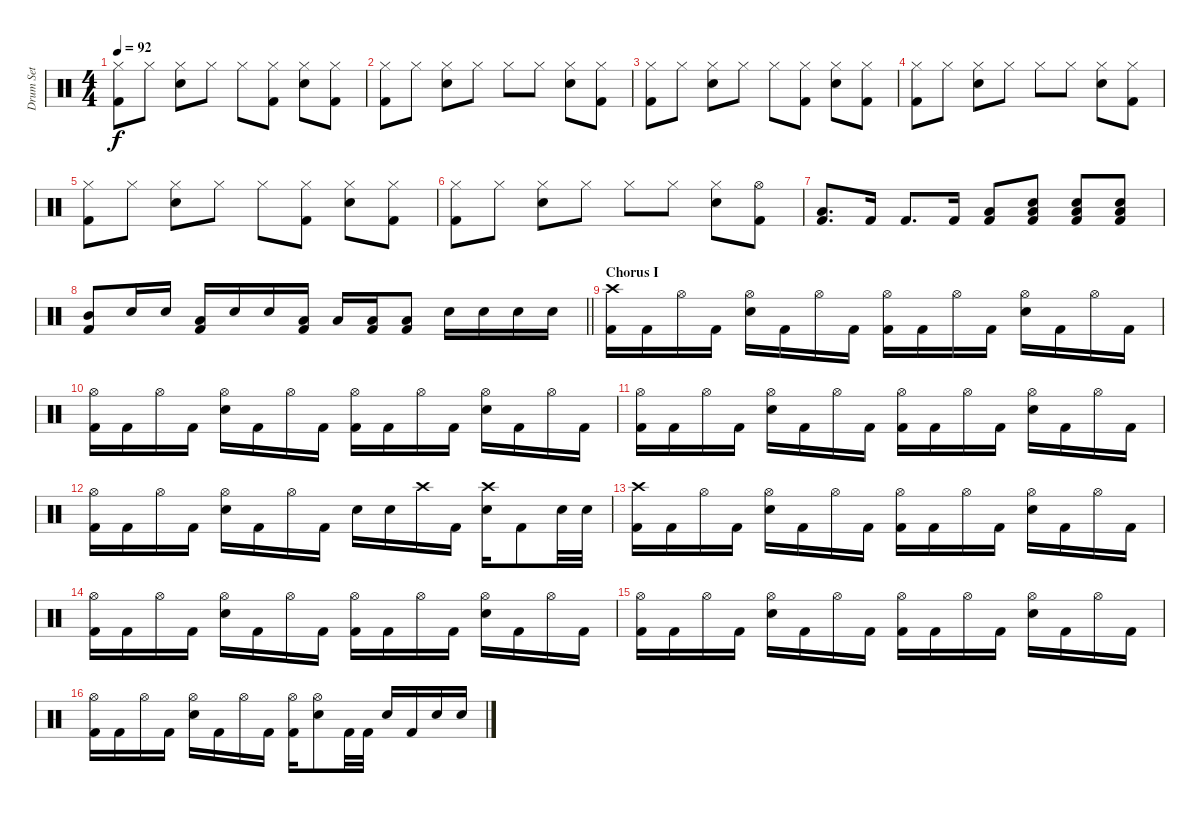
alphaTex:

\track ("Drum Set" "Drum Set") {instrument percussion}
\staff {score}
\articulation defaults
\ts (4 4)
\tempo 92
\clef neutral
\ks c
("Hi-Hat (closed)" "Kick (hit) 2").8{dy f} "Hi-Hat (closed)".8 ("Hi-Hat (closed)" "Electric Snare (hit)").8 "Hi-Hat (closed)".8 "Hi-Hat (closed)".8 ("Hi-Hat (closed)" "Kick (hit) 2").8 ("Hi-Hat (closed)" "Electric Snare (hit)").8 ("Hi-Hat (closed)" "Kick (hit) 2").8 |
("Hi-Hat (closed)" "Kick (hit) 2").8 "Hi-Hat (closed)".8 ("Hi-Hat (closed)" "Electric Snare (hit)").8 "Hi-Hat (closed)".8 "Hi-Hat (closed)".8 "Hi-Hat (closed)".8 ("Hi-Hat (closed)" "Electric Snare (hit)").8 ("Hi-Hat (closed)" "Kick (hit) 2").8 |
("Hi-Hat (closed)" "Kick (hit) 2").8 "Hi-Hat (closed)".8 ("Hi-Hat (closed)" "Electric Snare (hit)").8 "Hi-Hat (closed)".8 "Hi-Hat (closed)".8 ("Hi-Hat (closed)" "Kick (hit) 2").8 ("Hi-Hat (closed)" "Electric Snare (hit)").8 ("Hi-Hat (closed)" "Kick (hit) 2").8 |
("Hi-Hat (closed)" "Kick (hit) 2").8 "Hi-Hat (closed)".8 ("Hi-Hat (closed)" "Electric Snare (hit)").8 "Hi-Hat (closed)".8 "Hi-Hat (closed)".8 "Hi-Hat (closed)".8 ("Hi-Hat (closed)" "Electric Snare (hit)").8 ("Hi-Hat (closed)" "Kick (hit) 2").8 |
("Hi-Hat (closed)" "Kick (hit) 2").8 "Hi-Hat (closed)".8 ("Hi-Hat (closed)" "Electric Snare (hit)").8 "Hi-Hat (closed)".8 "Hi-Hat (closed)".8 ("Hi-Hat (closed)" "Kick (hit) 2").8 ("Hi-Hat (closed)" "Electric Snare (hit)").8 ("Hi-Hat (closed)" "Kick (hit) 2").8 |
("Hi-Hat (closed)" "Kick (hit) 2").8 "Hi-Hat (closed)".8 ("Hi-Hat (closed)" "Electric Snare (hit)").8 "Hi-Hat (closed)".8 "Hi-Hat (closed)".8 "Hi-Hat (closed)".8 ("Hi-Hat (closed)" "Electric Snare (hit)").8 ("Hi-Hat (open)" "Kick (hit) 2").8 |
("Low Floor Tom (hit)" "Kick (hit) 2").8{d} "Kick (hit) 2".16 "Kick (hit) 2".8{d} "Kick (hit) 2".16 ("Low Floor Tom (hit)" "Kick (hit) 2").8 ("Electric Snare (hit)" "Kick (hit) 2" "Low Floor Tom (hit)").8 ("Electric Snare (hit)" "Kick (hit) 2" "Low Floor Tom (hit)").8 ("Electric Snare (hit)" "Kick (hit) 2" "Low Floor Tom (hit)").8 |
\barLineRight lightlight
("Mid Tom (hit)" "Kick (hit) 2").8 "Electric Snare (hit)".16 "Electric Snare (hit)".16 ("Low Tom (hit)" "Kick (hit) 2").16 "Electric Snare (hit)".16 "Electric Snare (hit)".16 ("Low Tom (hit)" "Kick (hit) 2").16 "Low Floor Tom (hit)".16 ("Low Floor Tom (hit)" "Kick (hit) 2").16 ("Low Floor Tom (hit)" "Kick (hit) 2").8 "Electric Snare (hit)".16 "Electric Snare (hit)".16 "Electric Snare (hit)".16 "Electric Snare (hit)".16 |
\section ("" "Chorus I")
("Crash high (hit)" "Kick (hit) 2").16 "Kick (hit) 2".16 "Hi-Hat (open)".16 "Kick (hit) 2".16 ("Hi-Hat (open)" "Electric Snare (hit)").16 "Kick (hit) 2".16 "Hi-Hat (open)".16 "Kick (hit) 2".16 ("Hi-Hat (open)" "Kick (hit) 2").16 "Kick (hit) 2".16 "Hi-Hat (open)".16 "Kick (hit) 2".16 ("Hi-Hat (open)" "Electric Snare (hit)").16 "Kick (hit) 2".16 "Hi-Hat (open)".16 "Kick (hit) 2".16 |
("Hi-Hat (open)" "Kick (hit) 2").16 "Kick (hit) 2".16 "Hi-Hat (open)".16 "Kick (hit) 2".16 ("Hi-Hat (open)" "Electric Snare (hit)").16 "Kick (hit) 2".16 "Hi-Hat (open)".16 "Kick (hit) 2".16 ("Hi-Hat (open)" "Kick (hit) 2").16 "Kick (hit) 2".16 "Hi-Hat (open)".16 "Kick (hit) 2".16 ("Hi-Hat (open)" "Electric Snare (hit)").16 "Kick (hit) 2".16 "Hi-Hat (open)".16 "Kick (hit) 2".16 |
("Hi-Hat (open)" "Kick (hit) 2").16 "Kick (hit) 2".16 "Hi-Hat (open)".16 "Kick (hit) 2".16 ("Hi-Hat (open)" "Electric Snare (hit)").16 "Kick (hit) 2".16 "Hi-Hat (open)".16 "Kick (hit) 2".16 ("Hi-Hat (open)" "Kick (hit) 2").16 "Kick (hit) 2".16 "Hi-Hat (open)".16 "Kick (hit) 2".16 ("Hi-Hat (open)" "Electric Snare (hit)").16 "Kick (hit) 2".16 "Hi-Hat (open)".16 "Kick (hit) 2".16 |
("Hi-Hat (open)" "Kick (hit) 2").16 "Kick (hit) 2".16 "Hi-Hat (open)".16 "Kick (hit) 2".16 ("Hi-Hat (open)" "Electric Snare (hit)").16 "Kick (hit) 2".16 "Hi-Hat (open)".16 "Kick (hit) 2".16 "Electric Snare (hit)".16 "Electric Snare (hit)".16 "Crash high (hit)".16 "Kick (hit) 2".16 ("Electric Snare (hit)" "Crash high (hit)").16 "Kick (hit) 2".8 "Electric Snare (hit)".32 "Electric Snare (hit)".32 |
("Crash high (hit)" "Kick (hit) 2").16 "Kick (hit) 2".16 "Hi-Hat (open)".16 "Kick (hit) 2".16 ("Hi-Hat (open)" "Electric Snare (hit)").16 "Kick (hit) 2".16 "Hi-Hat (open)".16 "Kick (hit) 2".16 ("Hi-Hat (open)" "Kick (hit) 2").16 "Kick (hit) 2".16 "Hi-Hat (open)".16 "Kick (hit) 2".16 ("Hi-Hat (open)" "Electric Snare (hit)").16 "Kick (hit) 2".16 "Hi-Hat (open)".16 "Kick (hit) 2".16 |
("Hi-Hat (open)" "Kick (hit) 2").16 "Kick (hit) 2".16 "Hi-Hat (open)".16 "Kick (hit) 2".16 ("Hi-Hat (open)" "Electric Snare (hit)").16 "Kick (hit) 2".16 "Hi-Hat (open)".16 "Kick (hit) 2".16 ("Hi-Hat (open)" "Kick (hit) 2").16 "Kick (hit) 2".16 "Hi-Hat (open)".16 "Kick (hit) 2".16 ("Hi-Hat (open)" "Electric Snare (hit)").16 "Kick (hit) 2".16 "Hi-Hat (open)".16 "Kick (hit) 2".16 |
("Hi-Hat (open)" "Kick (hit) 2").16 "Kick (hit) 2".16 "Hi-Hat (open)".16 "Kick (hit) 2".16 ("Hi-Hat (open)" "Electric Snare (hit)").16 "Kick (hit) 2".16 "Hi-Hat (open)".16 "Kick (hit) 2".16 ("Hi-Hat (open)" "Kick (hit) 2").16 "Kick (hit) 2".16 "Hi-Hat (open)".16 "Kick (hit) 2".16 ("Hi-Hat (open)" "Electric Snare (hit)").16 "Kick (hit) 2".16 "Hi-Hat (open)".16 "Kick (hit) 2".16 |
("Hi-Hat (open)" "Kick (hit) 2").16 "Kick (hit) 2".16 "Hi-Hat (open)".16 "Kick (hit) 2".16 ("Hi-Hat (open)" "Electric Snare (hit)").16 "Kick (hit) 2".16 "Hi-Hat (open)".16 "Kick (hit) 2".16 ("Hi-Hat (open)" "Kick (hit) 2").16 ("Hi-Hat (open)" "Electric Snare (hit)").8 "Kick (hit) 2".32 "Kick (hit) 2".32 "Electric Snare (hit)".16 "Kick (hit) 2".16 "Electric Snare (hit)".16 "Electric Snare (hit)".16
